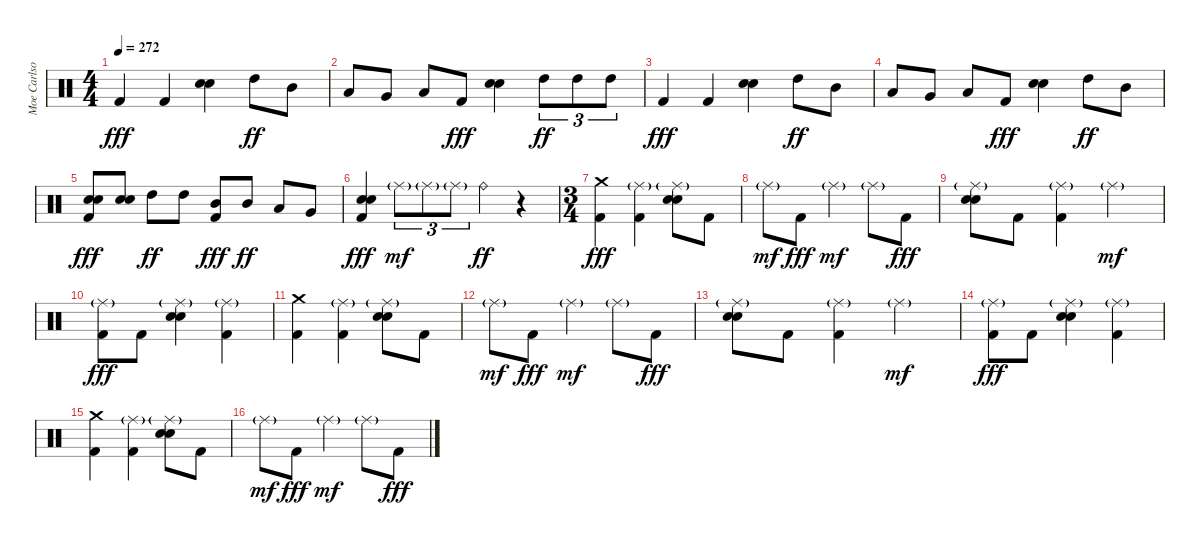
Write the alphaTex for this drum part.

\track ("Moe Carlson" "Moe Carlso") {instrument percussion}
\staff {score}
\articulation defaults
\ts (4 4)
\tempo 272
\clef neutral
\ks c "Kick (hit) 2".4{dy fff} "Kick (hit) 2".4
("Snare (hit) 2" "Electric Snare (hit)").4 "High Tom (hit)".8{dy ff} "Mid Tom (hit)".8 |
"Low Tom (hit)".8 "Very Low Tom (hit)".8 "Low Floor Tom (hit)".8 "Kick (hit) 2".8{dy fff} ("Snare (hit) 2" "Electric Snare (hit)").4 "High Tom (hit)".8{tu (3 2) dy ff} "High Tom (hit)".8{tu (3 2)} "High Tom (hit)".8{tu (3 2)} |
"Kick (hit) 2".4{dy fff} "Kick (hit) 2".4 ("Snare (hit) 2" "Electric Snare (hit)").4 "High Tom (hit)".8{dy ff} "Mid Tom (hit)".8 |
"Low Tom (hit)".8 "Very Low Tom (hit)".8 "Low Floor Tom (hit)".8 "Kick (hit) 2".8{dy fff} ("Snare (hit) 2" "Electric Snare (hit)").4 "High Tom (hit)".8{dy ff} "Mid Tom (hit)".8 |
("Snare (hit) 2" "Electric Snare (hit)" "Kick (hit) 2").8{dy fff} ("Snare (hit) 2" "Electric Snare (hit)").8 "High Tom (hit)".8{dy ff} "High Tom (hit)".8 ("Mid Tom (hit)" "Kick (hit) 2").8{dy fff} "Mid Tom (hit)".8{dy ff} "Low Tom (hit)".8 "Very Low Tom (hit)".8 |
("Snare (hit) 2" "Electric Snare (hit)" "Kick (hit) 2").4{dy fff} "Ride (middle)"{g}.8{tu (3 2) dy mf} "Ride (middle)"{g}.8{tu (3 2)} "Ride (middle)"{g}.8{tu (3 2)} "Ride (bell)".4{dy ff} r.4 |
\ts (3 4)
("Crash medium (hit)" "Kick (hit) 2").4{dy fff} ("Ride (middle)"{g} "Kick (hit) 2").4 ("Ride (middle)"{g} "Snare (hit) 2" "Electric Snare (hit)").8 "Kick (hit) 2".8 |
"Ride (middle)"{g}.8{dy mf} "Kick (hit) 2".8{dy fff} "Ride (middle)"{g}.4{dy mf} "Ride (middle)"{g}.8 "Kick (hit) 2".8{dy fff} |
("Ride (middle)"{g} "Snare (hit) 2" "Electric Snare (hit)").8 "Kick (hit) 2".8 ("Ride (middle)"{g} "Kick (hit) 2").4 "Ride (middle)"{g}.4{dy mf} |
("Ride (middle)"{g} "Kick (hit) 2").8{dy fff} "Kick (hit) 2".8 ("Ride (middle)"{g} "Snare (hit) 2" "Electric Snare (hit)").4 ("Ride (middle)"{g} "Kick (hit) 2").4 |
("Crash medium (hit)" "Kick (hit) 2").4 ("Ride (middle)"{g} "Kick (hit) 2").4 ("Ride (middle)"{g} "Snare (hit) 2" "Electric Snare (hit)").8 "Kick (hit) 2".8 |
"Ride (middle)"{g}.8{dy mf} "Kick (hit) 2".8{dy fff} "Ride (middle)"{g}.4{dy mf} "Ride (middle)"{g}.8 "Kick (hit) 2".8{dy fff} |
("Ride (middle)"{g} "Snare (hit) 2" "Electric Snare (hit)").8 "Kick (hit) 2".8 ("Ride (middle)"{g} "Kick (hit) 2").4 "Ride (middle)"{g}.4{dy mf} |
("Ride (middle)"{g} "Kick (hit) 2").8{dy fff} "Kick (hit) 2".8 ("Ride (middle)"{g} "Snare (hit) 2" "Electric Snare (hit)").4 ("Ride (middle)"{g} "Kick (hit) 2").4 |
("Crash medium (hit)" "Kick (hit) 2").4 ("Ride (middle)"{g} "Kick (hit) 2").4 ("Ride (middle)"{g} "Snare (hit) 2" "Electric Snare (hit)").8 "Kick (hit) 2".8 |
"Ride (middle)"{g}.8{dy mf} "Kick (hit) 2".8{dy fff} "Ride (middle)"{g}.4{dy mf} "Ride (middle)"{g}.8 "Kick (hit) 2".8{dy fff}
